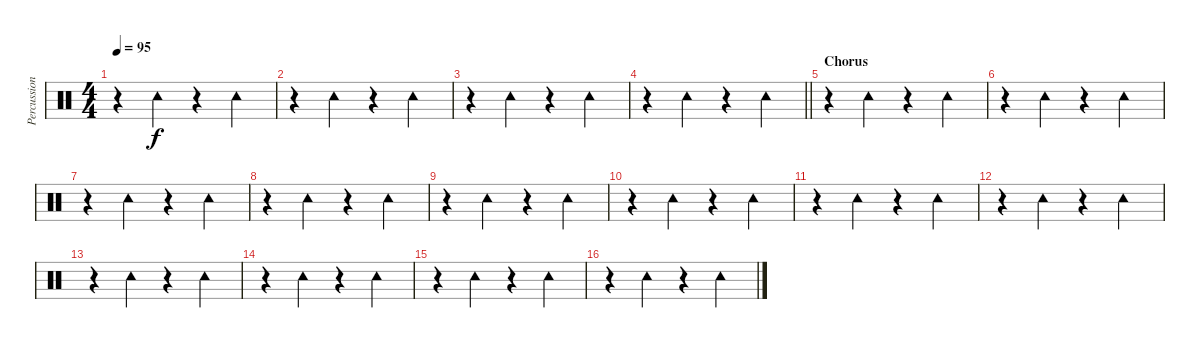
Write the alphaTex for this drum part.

\track ("Percussioni" "Percussion") {instrument percussion}
\staff {score}
\articulation defaults
\ts (4 4)
\tempo 95
\clef neutral
\ks c
r.4{dy f} "Tambourine (hit)".4 r.4 "Tambourine (hit)".4 |
r.4 "Tambourine (hit)".4 r.4 "Tambourine (hit)".4 |
r.4 "Tambourine (hit)".4 r.4 "Tambourine (hit)".4 |
\barLineRight lightlight
r.4 "Tambourine (hit)".4 r.4 "Tambourine (hit)".4 |
\section ("" "Chorus")
r.4 "Tambourine (hit)".4 r.4 "Tambourine (hit)".4 |
r.4 "Tambourine (hit)".4 r.4 "Tambourine (hit)".4 |
r.4 "Tambourine (hit)".4 r.4 "Tambourine (hit)".4 |
r.4 "Tambourine (hit)".4 r.4 "Tambourine (hit)".4 |
r.4 "Tambourine (hit)".4 r.4 "Tambourine (hit)".4 |
r.4 "Tambourine (hit)".4 r.4 "Tambourine (hit)".4 |
r.4 "Tambourine (hit)".4 r.4 "Tambourine (hit)".4 |
r.4 "Tambourine (hit)".4 r.4 "Tambourine (hit)".4 |
r.4 "Tambourine (hit)".4 r.4 "Tambourine (hit)".4 |
r.4 "Tambourine (hit)".4 r.4 "Tambourine (hit)".4 |
r.4 "Tambourine (hit)".4 r.4 "Tambourine (hit)".4 |
r.4 "Tambourine (hit)".4 r.4 "Tambourine (hit)".4
